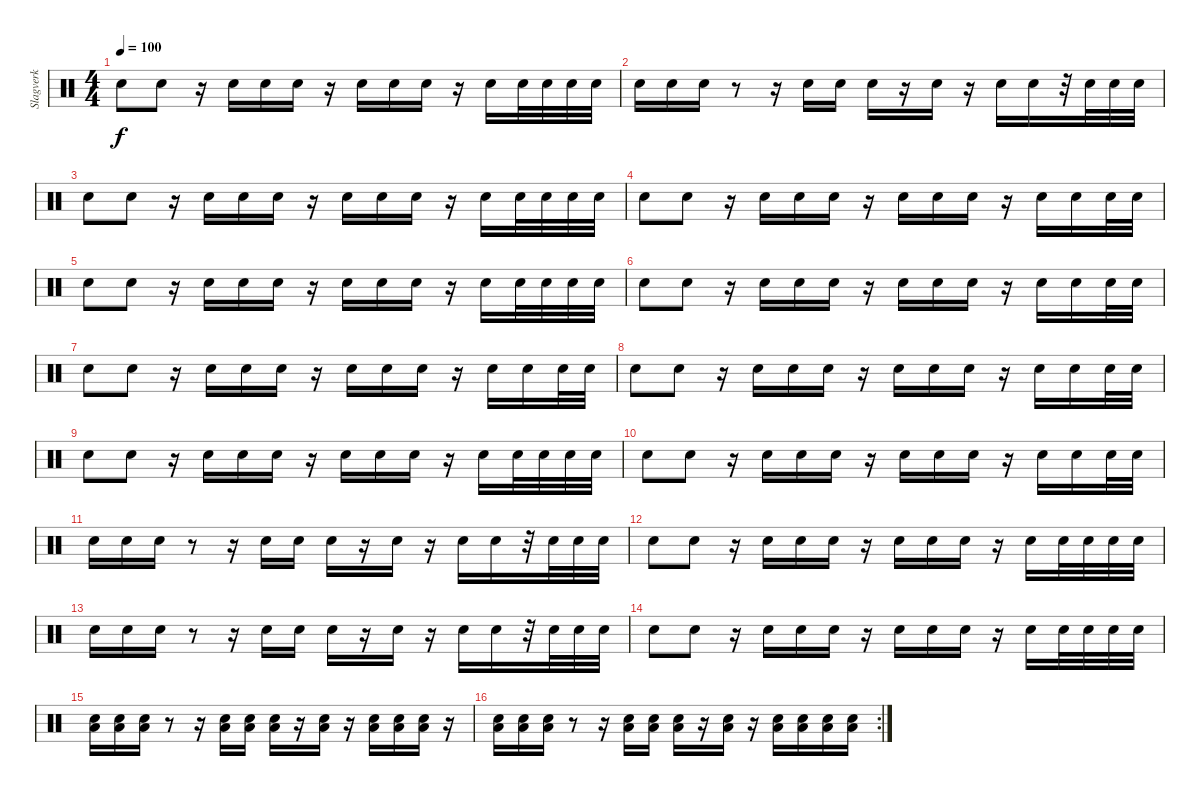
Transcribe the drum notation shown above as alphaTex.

\track ("Slagverk" "Slagverk") {instrument percussion}
\staff {score}
\articulation defaults
\ts (4 4)
\tempo 100
\clef neutral
\ks c "Snare (hit) 2".8{dy f} "Snare (hit) 2".8
r.16 "Snare (hit) 2".16 "Snare (hit) 2".16 "Snare (hit) 2".16 r.16 "Snare (hit) 2".16 "Snare (hit) 2".16 "Snare (hit) 2".16 r.16 "Snare (hit) 2".16 "Snare (hit) 2".32 "Snare (hit) 2".32 "Snare (hit) 2".32 "Snare (hit) 2".32 |
"Snare (hit) 2".16 "Snare (hit) 2".16 "Snare (hit) 2".16 r.8 r.16 "Snare (hit) 2".16 "Snare (hit) 2".16 "Snare (hit) 2".16 r.16 "Snare (hit) 2".16 r.16 "Snare (hit) 2".16 "Snare (hit) 2".16 r.32 "Snare (hit) 2".32 "Snare (hit) 2".32 "Snare (hit) 2".32 |
"Snare (hit) 2".8 "Snare (hit) 2".8 r.16 "Snare (hit) 2".16 "Snare (hit) 2".16 "Snare (hit) 2".16 r.16 "Snare (hit) 2".16 "Snare (hit) 2".16 "Snare (hit) 2".16 r.16 "Snare (hit) 2".16 "Snare (hit) 2".32 "Snare (hit) 2".32 "Snare (hit) 2".32 "Snare (hit) 2".32 |
"Snare (hit) 2".8 "Snare (hit) 2".8 r.16 "Snare (hit) 2".16 "Snare (hit) 2".16 "Snare (hit) 2".16 r.16 "Snare (hit) 2".16 "Snare (hit) 2".16 "Snare (hit) 2".16 r.16 "Snare (hit) 2".16 "Snare (hit) 2".16 "Snare (hit) 2".32 "Snare (hit) 2".32 |
"Snare (hit) 2".8 "Snare (hit) 2".8 r.16 "Snare (hit) 2".16 "Snare (hit) 2".16 "Snare (hit) 2".16 r.16 "Snare (hit) 2".16 "Snare (hit) 2".16 "Snare (hit) 2".16 r.16 "Snare (hit) 2".16 "Snare (hit) 2".32 "Snare (hit) 2".32 "Snare (hit) 2".32 "Snare (hit) 2".32 |
"Snare (hit) 2".8 "Snare (hit) 2".8 r.16 "Snare (hit) 2".16 "Snare (hit) 2".16 "Snare (hit) 2".16 r.16 "Snare (hit) 2".16 "Snare (hit) 2".16 "Snare (hit) 2".16 r.16 "Snare (hit) 2".16 "Snare (hit) 2".16 "Snare (hit) 2".32 "Snare (hit) 2".32 |
"Snare (hit) 2".8 "Snare (hit) 2".8 r.16 "Snare (hit) 2".16 "Snare (hit) 2".16 "Snare (hit) 2".16 r.16 "Snare (hit) 2".16 "Snare (hit) 2".16 "Snare (hit) 2".16 r.16 "Snare (hit) 2".16 "Snare (hit) 2".16 "Snare (hit) 2".32 "Snare (hit) 2".32 |
"Snare (hit) 2".8 "Snare (hit) 2".8 r.16 "Snare (hit) 2".16 "Snare (hit) 2".16 "Snare (hit) 2".16 r.16 "Snare (hit) 2".16 "Snare (hit) 2".16 "Snare (hit) 2".16 r.16 "Snare (hit) 2".16 "Snare (hit) 2".16 "Snare (hit) 2".32 "Snare (hit) 2".32 |
"Snare (hit) 2".8 "Snare (hit) 2".8 r.16 "Snare (hit) 2".16 "Snare (hit) 2".16 "Snare (hit) 2".16 r.16 "Snare (hit) 2".16 "Snare (hit) 2".16 "Snare (hit) 2".16 r.16 "Snare (hit) 2".16 "Snare (hit) 2".32 "Snare (hit) 2".32 "Snare (hit) 2".32 "Snare (hit) 2".32 |
"Snare (hit) 2".8 "Snare (hit) 2".8 r.16 "Snare (hit) 2".16 "Snare (hit) 2".16 "Snare (hit) 2".16 r.16 "Snare (hit) 2".16 "Snare (hit) 2".16 "Snare (hit) 2".16 r.16 "Snare (hit) 2".16 "Snare (hit) 2".16 "Snare (hit) 2".32 "Snare (hit) 2".32 |
"Snare (hit) 2".16 "Snare (hit) 2".16 "Snare (hit) 2".16 r.8 r.16 "Snare (hit) 2".16 "Snare (hit) 2".16 "Snare (hit) 2".16 r.16 "Snare (hit) 2".16 r.16 "Snare (hit) 2".16 "Snare (hit) 2".16 r.32 "Snare (hit) 2".32 "Snare (hit) 2".32 "Snare (hit) 2".32 |
"Snare (hit) 2".8 "Snare (hit) 2".8 r.16 "Snare (hit) 2".16 "Snare (hit) 2".16 "Snare (hit) 2".16 r.16 "Snare (hit) 2".16 "Snare (hit) 2".16 "Snare (hit) 2".16 r.16 "Snare (hit) 2".16 "Snare (hit) 2".32 "Snare (hit) 2".32 "Snare (hit) 2".32 "Snare (hit) 2".32 |
"Snare (hit) 2".16 "Snare (hit) 2".16 "Snare (hit) 2".16 r.8 r.16 "Snare (hit) 2".16 "Snare (hit) 2".16 "Snare (hit) 2".16 r.16 "Snare (hit) 2".16 r.16 "Snare (hit) 2".16 "Snare (hit) 2".16 r.32 "Snare (hit) 2".32 "Snare (hit) 2".32 "Snare (hit) 2".32 |
"Snare (hit) 2".8 "Snare (hit) 2".8 r.16 "Snare (hit) 2".16 "Snare (hit) 2".16 "Snare (hit) 2".16 r.16 "Snare (hit) 2".16 "Snare (hit) 2".16 "Snare (hit) 2".16 r.16 "Snare (hit) 2".16 "Snare (hit) 2".32 "Snare (hit) 2".32 "Snare (hit) 2".32 "Snare (hit) 2".32 |
("Low Floor Tom (hit)" "Snare (hit) 2").16 ("Low Floor Tom (hit)" "Snare (hit) 2").16 ("Low Floor Tom (hit)" "Snare (hit) 2").16 r.8 r.16 ("Low Floor Tom (hit)" "Snare (hit) 2").16 ("Low Floor Tom (hit)" "Snare (hit) 2").16 ("Low Floor Tom (hit)" "Snare (hit) 2").16 r.16 ("Low Floor Tom (hit)" "Snare (hit) 2").16 r.16 ("Low Tom (hit)" "Snare (hit) 2").16 ("Low Tom (hit)" "Snare (hit) 2").16 ("Low Tom (hit)" "Snare (hit) 2").16 r.16 |
\rc 2
("Low Floor Tom (hit)" "Snare (hit) 2").16 ("Low Floor Tom (hit)" "Snare (hit) 2").16 ("Low Floor Tom (hit)" "Snare (hit) 2").16 r.8 r.16 ("Low Floor Tom (hit)" "Snare (hit) 2").16 ("Low Floor Tom (hit)" "Snare (hit) 2").16 ("Low Floor Tom (hit)" "Snare (hit) 2").16 r.16 ("Low Floor Tom (hit)" "Snare (hit) 2").16 r.16 ("Low Tom (hit)" "Snare (hit) 2").16 ("Low Tom (hit)" "Snare (hit) 2").16 ("Low Tom (hit)" "Snare (hit) 2").16 ("Low Tom (hit)" "Snare (hit) 2").16
